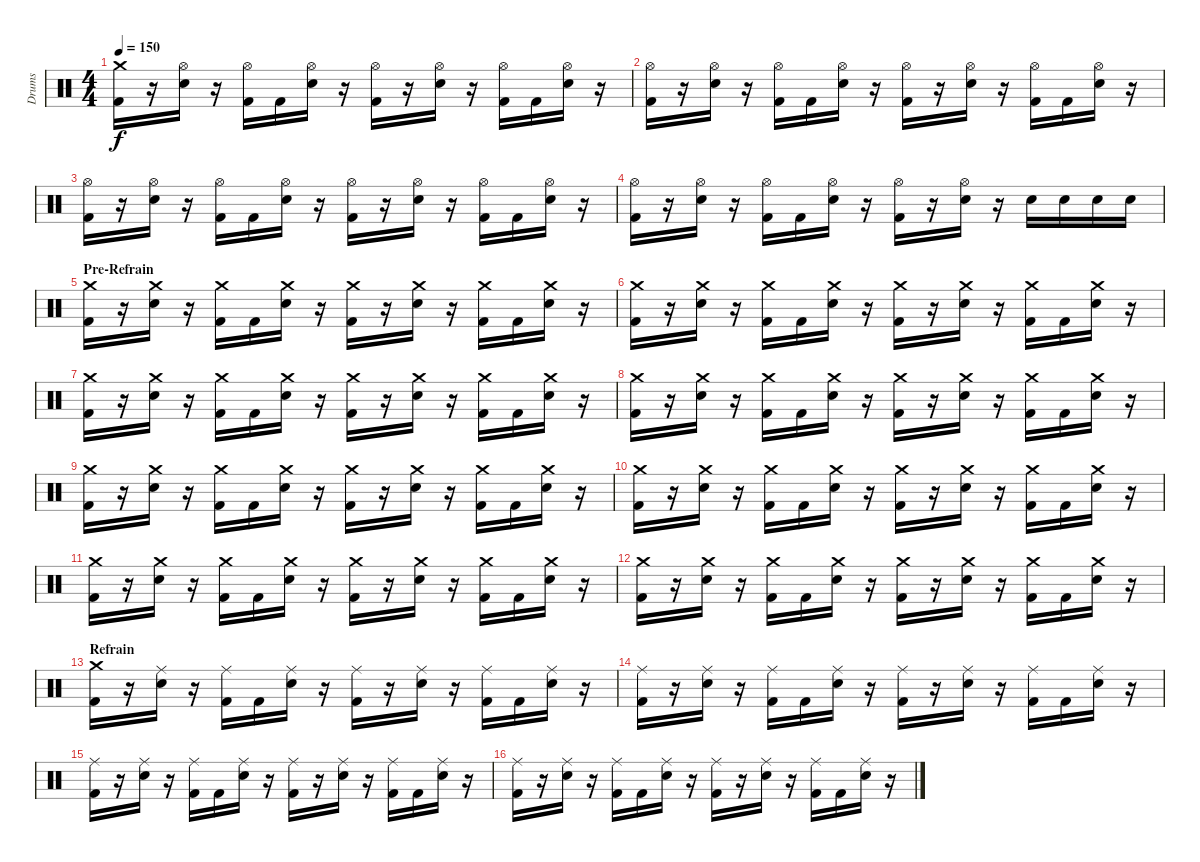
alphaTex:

\track ("Drums" "Drums") {instrument percussion}
\staff {score}
\articulation defaults
\ts (4 4)
\tempo 150
\clef neutral
\ks c
("Crash medium (hit)" "Kick (hit) 2").16{dy f} r.16 ("Hi-Hat (open)" "Electric Snare (hit)").16 r.16 ("Hi-Hat (open)" "Kick (hit) 2").16 "Kick (hit) 2".16 ("Hi-Hat (open)" "Electric Snare (hit)").16 r.16 ("Hi-Hat (open)" "Kick (hit) 2").16 r.16 ("Hi-Hat (open)" "Electric Snare (hit)").16 r.16 ("Hi-Hat (open)" "Kick (hit) 2").16 "Kick (hit) 2".16 ("Hi-Hat (open)" "Electric Snare (hit)").16 r.16 |
("Hi-Hat (open)" "Kick (hit) 2").16 r.16 ("Hi-Hat (open)" "Electric Snare (hit)").16 r.16 ("Hi-Hat (open)" "Kick (hit) 2").16 "Kick (hit) 2".16 ("Hi-Hat (open)" "Electric Snare (hit)").16 r.16 ("Hi-Hat (open)" "Kick (hit) 2").16 r.16 ("Hi-Hat (open)" "Electric Snare (hit)").16 r.16 ("Hi-Hat (open)" "Kick (hit) 2").16 "Kick (hit) 2".16 ("Hi-Hat (open)" "Electric Snare (hit)").16 r.16 |
("Hi-Hat (open)" "Kick (hit) 2").16 r.16 ("Hi-Hat (open)" "Electric Snare (hit)").16 r.16 ("Hi-Hat (open)" "Kick (hit) 2").16 "Kick (hit) 2".16 ("Hi-Hat (open)" "Electric Snare (hit)").16 r.16 ("Hi-Hat (open)" "Kick (hit) 2").16 r.16 ("Hi-Hat (open)" "Electric Snare (hit)").16 r.16 ("Hi-Hat (open)" "Kick (hit) 2").16 "Kick (hit) 2".16 ("Hi-Hat (open)" "Electric Snare (hit)").16 r.16 |
("Hi-Hat (open)" "Kick (hit) 2").16 r.16 ("Hi-Hat (open)" "Electric Snare (hit)").16 r.16 ("Hi-Hat (open)" "Kick (hit) 2").16 "Kick (hit) 2".16 ("Hi-Hat (open)" "Electric Snare (hit)").16 r.16 ("Hi-Hat (open)" "Kick (hit) 2").16 r.16 ("Hi-Hat (open)" "Electric Snare (hit)").16 r.16 "Electric Snare (hit)".16 "Electric Snare (hit)".16 "Electric Snare (hit)".16 "Electric Snare (hit)".16 |
\section ("" "Pre-Refrain")
("Crash medium (hit)" "Kick (hit) 2").16 r.16 ("Crash medium (hit)" "Electric Snare (hit)").16 r.16 ("Crash medium (hit)" "Kick (hit) 2").16 "Kick (hit) 2".16 ("Crash medium (hit)" "Electric Snare (hit)").16 r.16 ("Crash medium (hit)" "Kick (hit) 2").16 r.16 ("Crash medium (hit)" "Electric Snare (hit)").16 r.16 ("Crash medium (hit)" "Kick (hit) 2").16 "Kick (hit) 2".16 ("Crash medium (hit)" "Electric Snare (hit)").16 r.16 |
("Crash medium (hit)" "Kick (hit) 2").16 r.16 ("Crash medium (hit)" "Electric Snare (hit)").16 r.16 ("Crash medium (hit)" "Kick (hit) 2").16 "Kick (hit) 2".16 ("Crash medium (hit)" "Electric Snare (hit)").16 r.16 ("Crash medium (hit)" "Kick (hit) 2").16 r.16 ("Crash medium (hit)" "Electric Snare (hit)").16 r.16 ("Crash medium (hit)" "Kick (hit) 2").16 "Kick (hit) 2".16 ("Crash medium (hit)" "Electric Snare (hit)").16 r.16 |
("Crash medium (hit)" "Kick (hit) 2").16 r.16 ("Crash medium (hit)" "Electric Snare (hit)").16 r.16 ("Crash medium (hit)" "Kick (hit) 2").16 "Kick (hit) 2".16 ("Crash medium (hit)" "Electric Snare (hit)").16 r.16 ("Crash medium (hit)" "Kick (hit) 2").16 r.16 ("Crash medium (hit)" "Electric Snare (hit)").16 r.16 ("Crash medium (hit)" "Kick (hit) 2").16 "Kick (hit) 2".16 ("Crash medium (hit)" "Electric Snare (hit)").16 r.16 |
("Crash medium (hit)" "Kick (hit) 2").16 r.16 ("Crash medium (hit)" "Electric Snare (hit)").16 r.16 ("Crash medium (hit)" "Kick (hit) 2").16 "Kick (hit) 2".16 ("Crash medium (hit)" "Electric Snare (hit)").16 r.16 ("Crash medium (hit)" "Kick (hit) 2").16 r.16 ("Crash medium (hit)" "Electric Snare (hit)").16 r.16 ("Crash medium (hit)" "Kick (hit) 2").16 "Kick (hit) 2".16 ("Crash medium (hit)" "Electric Snare (hit)").16 r.16 |
("Crash medium (hit)" "Kick (hit) 2").16 r.16 ("Crash medium (hit)" "Electric Snare (hit)").16 r.16 ("Crash medium (hit)" "Kick (hit) 2").16 "Kick (hit) 2".16 ("Crash medium (hit)" "Electric Snare (hit)").16 r.16 ("Crash medium (hit)" "Kick (hit) 2").16 r.16 ("Crash medium (hit)" "Electric Snare (hit)").16 r.16 ("Crash medium (hit)" "Kick (hit) 2").16 "Kick (hit) 2".16 ("Crash medium (hit)" "Electric Snare (hit)").16 r.16 |
("Crash medium (hit)" "Kick (hit) 2").16 r.16 ("Crash medium (hit)" "Electric Snare (hit)").16 r.16 ("Crash medium (hit)" "Kick (hit) 2").16 "Kick (hit) 2".16 ("Crash medium (hit)" "Electric Snare (hit)").16 r.16 ("Crash medium (hit)" "Kick (hit) 2").16 r.16 ("Crash medium (hit)" "Electric Snare (hit)").16 r.16 ("Crash medium (hit)" "Kick (hit) 2").16 "Kick (hit) 2".16 ("Crash medium (hit)" "Electric Snare (hit)").16 r.16 |
("Crash medium (hit)" "Kick (hit) 2").16 r.16 ("Crash medium (hit)" "Electric Snare (hit)").16 r.16 ("Crash medium (hit)" "Kick (hit) 2").16 "Kick (hit) 2".16 ("Crash medium (hit)" "Electric Snare (hit)").16 r.16 ("Crash medium (hit)" "Kick (hit) 2").16 r.16 ("Crash medium (hit)" "Electric Snare (hit)").16 r.16 ("Crash medium (hit)" "Kick (hit) 2").16 "Kick (hit) 2".16 ("Crash medium (hit)" "Electric Snare (hit)").16 r.16 |
("Crash medium (hit)" "Kick (hit) 2").16 r.16 ("Crash medium (hit)" "Electric Snare (hit)").16 r.16 ("Crash medium (hit)" "Kick (hit) 2").16 "Kick (hit) 2".16 ("Crash medium (hit)" "Electric Snare (hit)").16 r.16 ("Crash medium (hit)" "Kick (hit) 2").16 r.16 ("Crash medium (hit)" "Electric Snare (hit)").16 r.16 ("Crash medium (hit)" "Kick (hit) 2").16 "Kick (hit) 2".16 ("Crash medium (hit)" "Electric Snare (hit)").16 r.16 |
\section ("" "Refrain")
("Crash medium (hit)" "Kick (hit) 2").16 r.16 ("Ride (middle)" "Electric Snare (hit)").16 r.16 ("Ride (middle)" "Kick (hit) 2").16 "Kick (hit) 2".16 ("Ride (middle)" "Electric Snare (hit)").16 r.16 ("Ride (middle)" "Kick (hit) 2").16 r.16 ("Ride (middle)" "Electric Snare (hit)").16 r.16 ("Ride (middle)" "Kick (hit) 2").16 "Kick (hit) 2".16 ("Ride (middle)" "Electric Snare (hit)").16 r.16 |
("Ride (middle)" "Kick (hit) 2").16 r.16 ("Ride (middle)" "Electric Snare (hit)").16 r.16 ("Ride (middle)" "Kick (hit) 2").16 "Kick (hit) 2".16 ("Ride (middle)" "Electric Snare (hit)").16 r.16 ("Ride (middle)" "Kick (hit) 2").16 r.16 ("Ride (middle)" "Electric Snare (hit)").16 r.16 ("Ride (middle)" "Kick (hit) 2").16 "Kick (hit) 2".16 ("Ride (middle)" "Electric Snare (hit)").16 r.16 |
("Ride (middle)" "Kick (hit) 2").16 r.16 ("Ride (middle)" "Electric Snare (hit)").16 r.16 ("Ride (middle)" "Kick (hit) 2").16 "Kick (hit) 2".16 ("Ride (middle)" "Electric Snare (hit)").16 r.16 ("Ride (middle)" "Kick (hit) 2").16 r.16 ("Ride (middle)" "Electric Snare (hit)").16 r.16 ("Ride (middle)" "Kick (hit) 2").16 "Kick (hit) 2".16 ("Ride (middle)" "Electric Snare (hit)").16 r.16 |
("Ride (middle)" "Kick (hit) 2").16 r.16 ("Ride (middle)" "Electric Snare (hit)").16 r.16 ("Ride (middle)" "Kick (hit) 2").16 "Kick (hit) 2".16 ("Ride (middle)" "Electric Snare (hit)").16 r.16 ("Ride (middle)" "Kick (hit) 2").16 r.16 ("Ride (middle)" "Electric Snare (hit)").16 r.16 ("Ride (middle)" "Kick (hit) 2").16 "Kick (hit) 2".16 ("Ride (middle)" "Electric Snare (hit)").16 r.16
